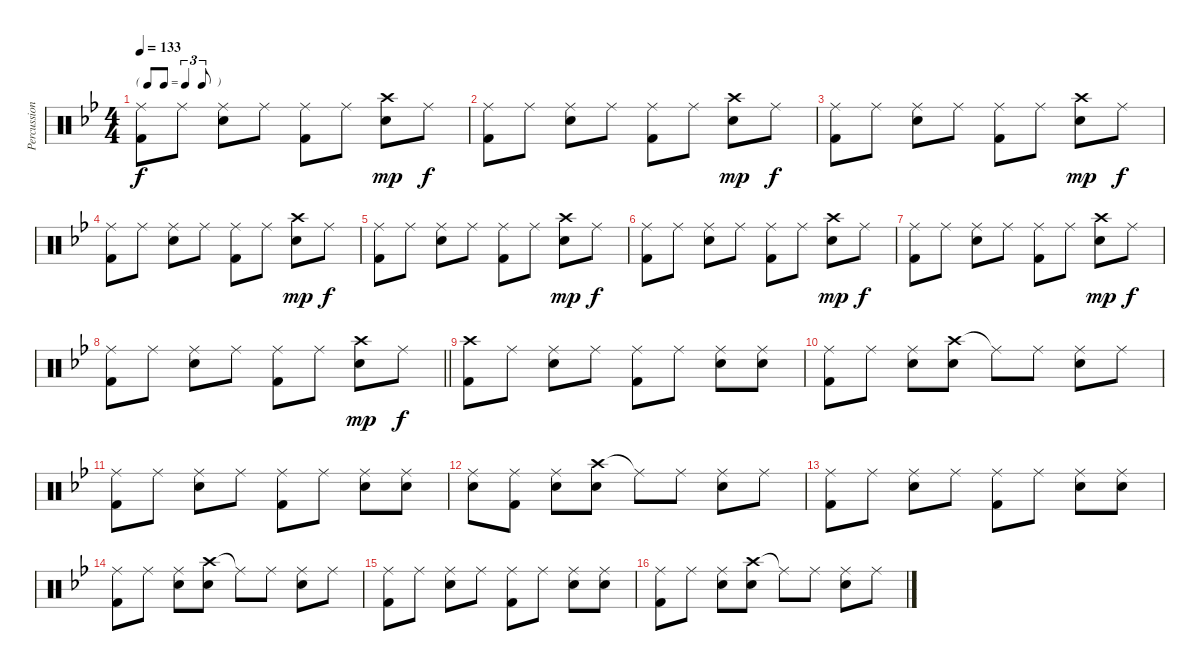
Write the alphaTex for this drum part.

\track ("Percussion" "Percussion") {instrument percussion}
\staff {score}
\articulation defaults
\ts (4 4)
\tf triplet8th
\tempo 133
\clef neutral
\ks bb
("Ride (middle)" "Kick (hit) 2").8{dy f} "Ride (middle)".8 ("Ride (middle)" "Snare (hit) 2").8 "Ride (middle)".8 ("Ride (middle)" "Kick (hit) 2").8 "Ride (middle)".8 ("Crash high (hit)" "Snare (hit) 2").8{dy mp} "Ride (middle)".8{dy f} |
("Ride (middle)" "Kick (hit) 2").8 "Ride (middle)".8 ("Ride (middle)" "Snare (hit) 2").8 "Ride (middle)".8 ("Ride (middle)" "Kick (hit) 2").8 "Ride (middle)".8 ("Crash high (hit)" "Snare (hit) 2").8{dy mp} "Ride (middle)".8{dy f} |
("Ride (middle)" "Kick (hit) 2").8 "Ride (middle)".8 ("Ride (middle)" "Snare (hit) 2").8 "Ride (middle)".8 ("Ride (middle)" "Kick (hit) 2").8 "Ride (middle)".8 ("Crash high (hit)" "Snare (hit) 2").8{dy mp} "Ride (middle)".8{dy f} |
("Ride (middle)" "Kick (hit) 2").8 "Ride (middle)".8 ("Ride (middle)" "Snare (hit) 2").8 "Ride (middle)".8 ("Ride (middle)" "Kick (hit) 2").8 "Ride (middle)".8 ("Crash high (hit)" "Snare (hit) 2").8{dy mp} "Ride (middle)".8{dy f} |
("Ride (middle)" "Kick (hit) 2").8 "Ride (middle)".8 ("Ride (middle)" "Snare (hit) 2").8 "Ride (middle)".8 ("Ride (middle)" "Kick (hit) 2").8 "Ride (middle)".8 ("Crash high (hit)" "Snare (hit) 2").8{dy mp} "Ride (middle)".8{dy f} |
("Ride (middle)" "Kick (hit) 2").8 "Ride (middle)".8 ("Ride (middle)" "Snare (hit) 2").8 "Ride (middle)".8 ("Ride (middle)" "Kick (hit) 2").8 "Ride (middle)".8 ("Crash high (hit)" "Snare (hit) 2").8{dy mp} "Ride (middle)".8{dy f} |
("Ride (middle)" "Kick (hit) 2").8 "Ride (middle)".8 ("Ride (middle)" "Snare (hit) 2").8 "Ride (middle)".8 ("Ride (middle)" "Kick (hit) 2").8 "Ride (middle)".8 ("Crash high (hit)" "Snare (hit) 2").8{dy mp} "Ride (middle)".8{dy f} |
\barLineRight lightlight
("Ride (middle)" "Kick (hit) 2").8 "Ride (middle)".8 ("Ride (middle)" "Snare (hit) 2").8 "Ride (middle)".8 ("Ride (middle)" "Kick (hit) 2").8 "Ride (middle)".8 ("Crash high (hit)" "Snare (hit) 2").8{dy mp} "Ride (middle)".8{dy f} |
("Crash high (hit)" "Kick (hit) 2").8 "Ride (middle)".8 ("Ride (middle)" "Snare (hit) 2").8 "Ride (middle)".8 ("Ride (middle)" "Kick (hit) 2").8 "Ride (middle)".8 ("Ride (middle)" "Snare (hit) 2").8 ("Ride (middle)" "Snare (hit) 2").8 |
("Ride (middle)" "Kick (hit) 2").8 "Ride (middle)".8 ("Ride (middle)" "Snare (hit) 2").8 ("Crash high (hit)" "Snare (hit) 2").8 "Ride (middle)"{t}.8 "Ride (middle)".8 ("Ride (middle)" "Snare (hit) 2").8 "Ride (middle)".8 |
("Ride (middle)" "Kick (hit) 2").8 "Ride (middle)".8 ("Ride (middle)" "Snare (hit) 2").8 "Ride (middle)".8 ("Ride (middle)" "Kick (hit) 2").8 "Ride (middle)".8 ("Ride (middle)" "Snare (hit) 2").8 ("Ride (middle)" "Snare (hit) 2").8 |
("Ride (middle)" "Snare (hit) 2").8 ("Ride (middle)" "Kick (hit) 2").8 ("Ride (middle)" "Snare (hit) 2").8 ("Crash high (hit)" "Snare (hit) 2").8 "Ride (middle)"{t}.8 "Ride (middle)".8 ("Ride (middle)" "Snare (hit) 2").8 "Ride (middle)".8 |
("Ride (middle)" "Kick (hit) 2").8 "Ride (middle)".8 ("Ride (middle)" "Snare (hit) 2").8 "Ride (middle)".8 ("Ride (middle)" "Kick (hit) 2").8 "Ride (middle)".8 ("Ride (middle)" "Snare (hit) 2").8 ("Ride (middle)" "Snare (hit) 2").8 |
("Ride (middle)" "Kick (hit) 2").8 "Ride (middle)".8 ("Ride (middle)" "Snare (hit) 2").8 ("Crash high (hit)" "Snare (hit) 2").8 "Ride (middle)"{t}.8 "Ride (middle)".8 ("Ride (middle)" "Snare (hit) 2").8 "Ride (middle)".8 |
("Ride (middle)" "Kick (hit) 2").8 "Ride (middle)".8 ("Ride (middle)" "Snare (hit) 2").8 "Ride (middle)".8 ("Ride (middle)" "Kick (hit) 2").8 "Ride (middle)".8 ("Ride (middle)" "Snare (hit) 2").8 ("Ride (middle)" "Snare (hit) 2").8 |
("Ride (middle)" "Kick (hit) 2").8 "Ride (middle)".8 ("Ride (middle)" "Snare (hit) 2").8 ("Crash high (hit)" "Snare (hit) 2").8 "Ride (middle)"{t}.8 "Ride (middle)".8 ("Ride (middle)" "Snare (hit) 2").8 "Ride (middle)".8
